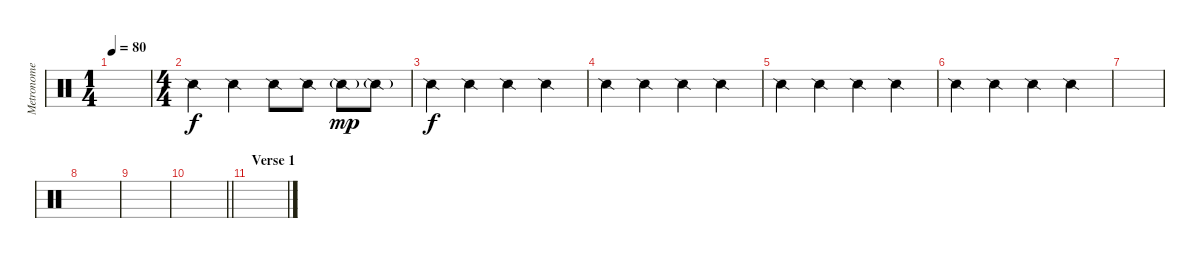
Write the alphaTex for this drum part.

\track ("Metronome" "Metronome") {instrument percussion}
\staff {score}
\articulation defaults
\ts (1 4)
\tempo 80
\clef neutral
\ks c
|
\ts (4 4)
"Snare (side stick) 2".4 "Snare (side stick) 2".4 "Snare (side stick) 2".8 "Snare (side stick) 2".8 "Snare (side stick) 2"{g}.8{dy mp} "Snare (side stick) 2"{g}.8 |
"Snare (side stick) 2".4{dy f} "Snare (side stick) 2".4 "Snare (side stick) 2".4 "Snare (side stick) 2".4 |
"Snare (side stick) 2".4 "Snare (side stick) 2".4 "Snare (side stick) 2".4 "Snare (side stick) 2".4 |
"Snare (side stick) 2".4 "Snare (side stick) 2".4 "Snare (side stick) 2".4 "Snare (side stick) 2".4 |
"Snare (side stick) 2".4 "Snare (side stick) 2".4 "Snare (side stick) 2".4 "Snare (side stick) 2".4 |
|
|
|
\barLineRight lightlight
|
\section ("" "Verse 1")
